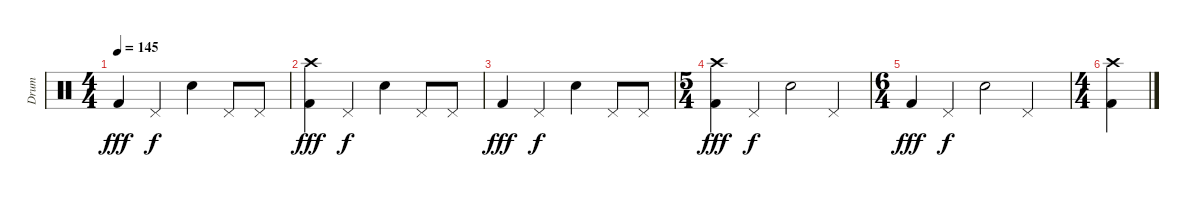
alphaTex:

\track ("Drum" "Drum") {instrument percussion}
\staff {score}
\articulation defaults
\ts (4 4)
\tempo 145
\clef neutral
\ks c "Kick (hit) 2".4{dy fff} "Pedal Hi-Hat (hit)".4{dy f} "Electric Snare (hit)".4 "Pedal Hi-Hat (hit)".8 "Pedal Hi-Hat (hit)".8
|
("Crash high (hit)" "Kick (hit) 2").4{dy fff} "Pedal Hi-Hat (hit)".4{dy f} "Electric Snare (hit)".4 "Pedal Hi-Hat (hit)".8 "Pedal Hi-Hat (hit)".8 |
"Kick (hit) 2".4{dy fff} "Pedal Hi-Hat (hit)".4{dy f} "Electric Snare (hit)".4 "Pedal Hi-Hat (hit)".8 "Pedal Hi-Hat (hit)".8 |
\ts (5 4)
("Crash high (hit)" "Kick (hit) 2").4{dy fff} "Pedal Hi-Hat (hit)".4{dy f} "Electric Snare (hit)".2 "Pedal Hi-Hat (hit)".4 |
\ts (6 4)
"Kick (hit) 2".4{dy fff} "Pedal Hi-Hat (hit)".4{dy f} "Electric Snare (hit)".2 "Pedal Hi-Hat (hit)".2 |
\ts (4 4)
("Kick (hit) 2" "Crash high (hit)").4
